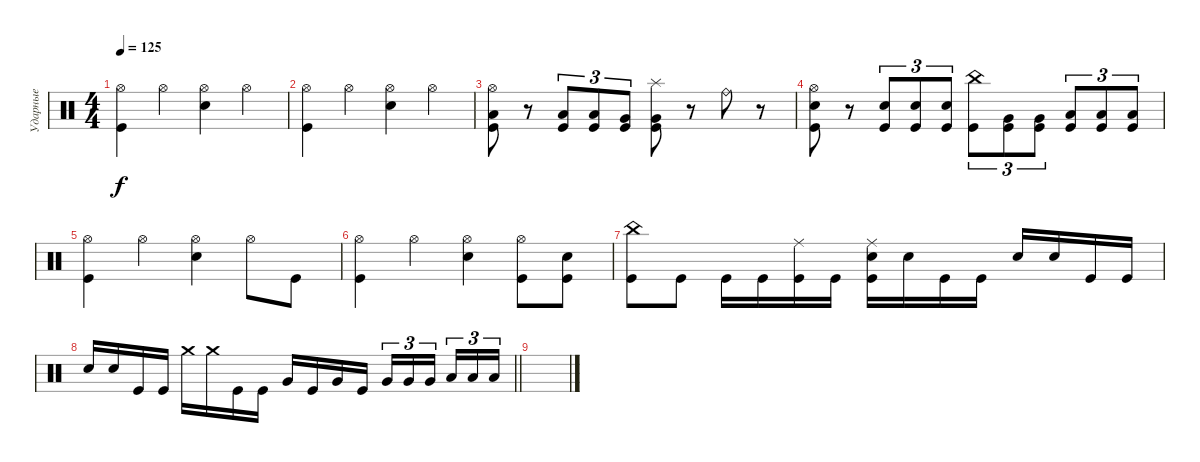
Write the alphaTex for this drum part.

\track ("Ударные" "Ударные") {instrument percussion}
\staff {score}
\articulation defaults
\ts (4 4)
\tempo 125
\clef neutral
\ks c
("Hi-Hat (open)" "Kick (hit)").4{dy f} "Hi-Hat (open)".4 ("Hi-Hat (open)" "Electric Snare (hit)").4 "Hi-Hat (open)".4 |
("Hi-Hat (open)" "Kick (hit)").4 "Hi-Hat (open)".4 ("Hi-Hat (open)" "Electric Snare (hit)").4 "Hi-Hat (open)".4 |
("Hi-Hat (open)" "Low Tom (hit)" "Kick (hit)").8 r.8 ("Low Tom (hit)" "Kick (hit)").8{tu (3 2)} ("Low Tom (hit)" "Kick (hit)").8{tu (3 2)} ("Very Low Tom (hit)" "Kick (hit)").8{tu (3 2)} ("Splash (hit)" "Very Low Tom (hit)" "Kick (hit)").8 r.8 "Ride (bell)".8 r.8 |
("Hi-Hat (open)" "Electric Snare (hit)" "Kick (hit)").8 r.8 ("Electric Snare (hit)" "Kick (hit)").8{tu (3 2)} ("Electric Snare (hit)" "Kick (hit)").8{tu (3 2)} ("Electric Snare (hit)" "Kick (hit)").8{tu (3 2)} ("China (hit)" "Kick (hit)").8{tu (3 2)} ("Very Low Tom (hit)" "Kick (hit)").8{tu (3 2)} ("Very Low Tom (hit)" "Kick (hit)").8{tu (3 2)} ("Low Floor Tom (hit)" "Kick (hit)").8{tu (3 2)} ("Low Floor Tom (hit)" "Kick (hit)").8{tu (3 2)} ("Low Floor Tom (hit)" "Kick (hit)").8{tu (3 2)} |
("Hi-Hat (open)" "Kick (hit)").4 "Hi-Hat (open)".4 ("Hi-Hat (open)" "Electric Snare (hit)").4 "Hi-Hat (open)".8 "Kick (hit)".8 |
("Hi-Hat (open)" "Kick (hit)").4 "Hi-Hat (open)".4 ("Hi-Hat (open)" "Electric Snare (hit)").4 ("Hi-Hat (open)" "Kick (hit)").8 ("Electric Snare (hit)" "Kick (hit)").8 |
("China (hit)" "Kick (hit)").8 "Kick (hit)".8 "Kick (hit)".16 "Kick (hit)".16 ("Ride (middle)" "Kick (hit)").16 "Kick (hit)".16 ("Ride (middle)" "Electric Snare (hit)" "Kick (hit)").16 "Electric Snare (hit)".16 "Kick (hit)".16 "Kick (hit)".16 "Electric Snare (hit)".16 "Electric Snare (hit)".16 "Kick (hit)".16 "Kick (hit)".16 |
\barLineRight lightlight "Electric Snare (hit)".16 "Electric Snare (hit)".16 "Kick (hit)".16 "Kick (hit)".16 "Crash medium (hit)".16 "Crash medium (hit)".16 "Kick (hit)".16 "Kick (hit)".16 "Very Low Tom (hit)".16 "Kick (hit)".16 "Very Low Tom (hit)".16 "Kick (hit)".16 "Very Low Tom (hit)".16{tu (3 2)} "Very Low Tom (hit)".16{tu (3 2)} "Very Low Tom (hit)".16{tu (3 2) beam splitsecondary} "Low Floor Tom (hit)".16{tu (3 2)} "Low Floor Tom (hit)".16{tu (3 2)} "Low Floor Tom (hit)".16{tu (3 2)}
|
\section ("" " ")
